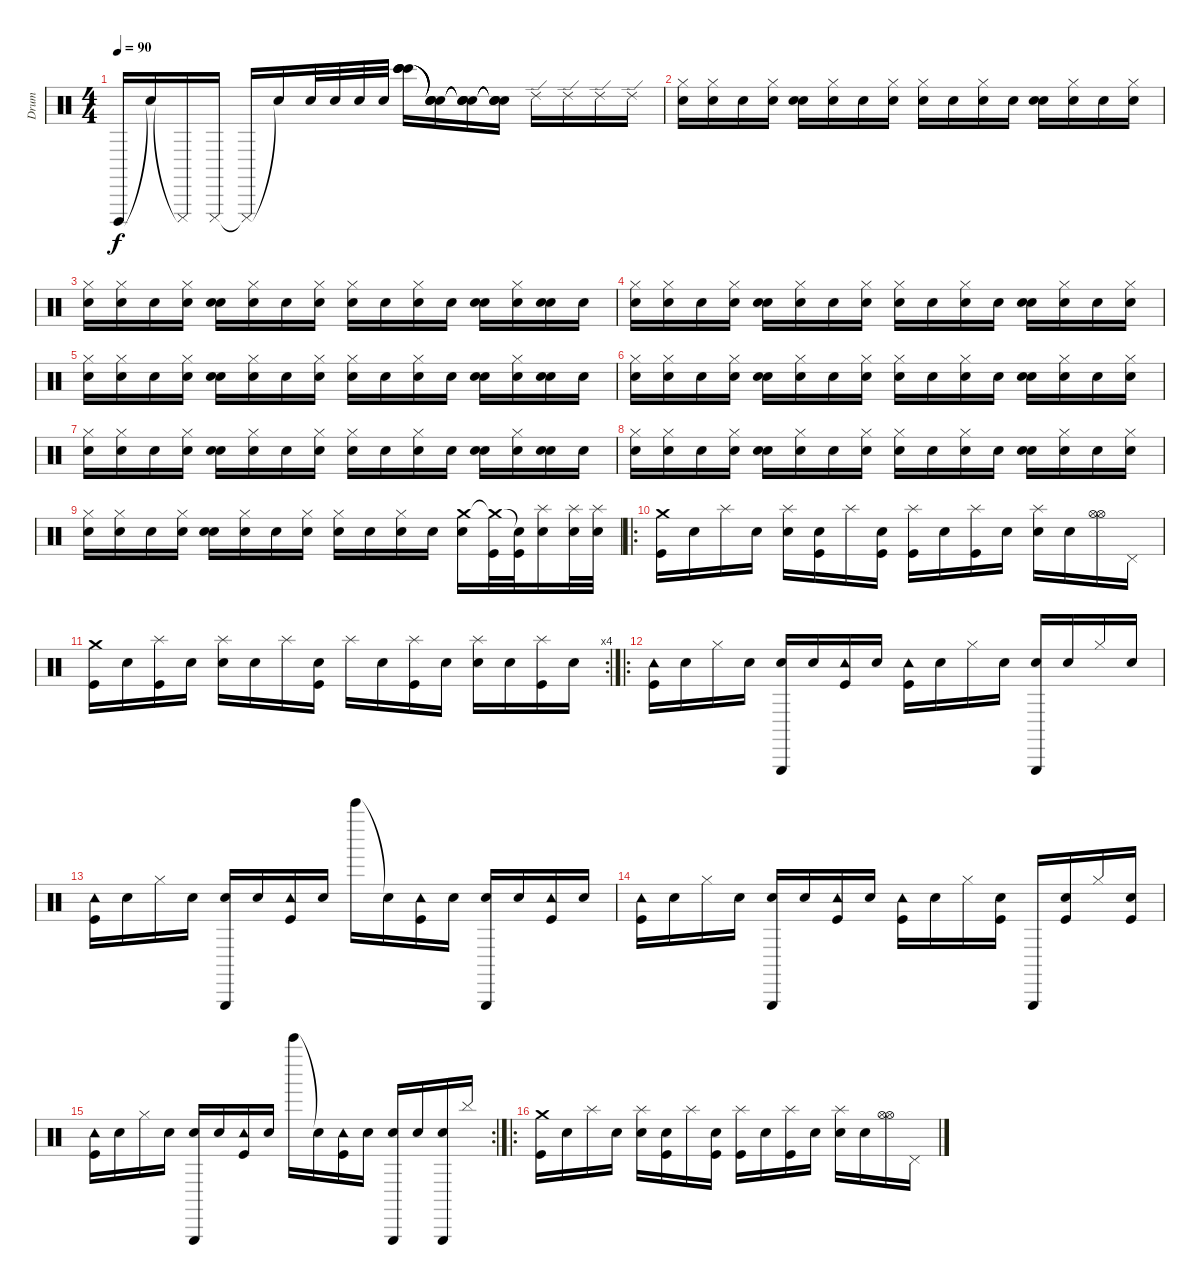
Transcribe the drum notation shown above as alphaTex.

\track ("Drum" "Drum") {instrument percussion}
\staff {score}
\articulation defaults
\ts (4 4)
\tempo 90
\clef neutral
\ks c "Cuica (open)".16{dy f} "Snare (hit)"{t}.16 "Cuica (mute)"{t}.16 "Cuica (mute)".16 "Cuica (mute)"{t}.16 "Snare (hit)"{t}.16 "Snare (hit)".32 "Snare (hit)".32 "Snare (hit)".32 "Snare (hit)".32
("Bongo High (hit)" "Bongo High (hit)" "Bongo High (hit)" "Bongo High (hit)").16 ("Snare (hit)"{t} "Snare (hit)"{t} "Snare (hit)"{t} "Snare (hit)"{t}).16 ("Snare (hit)"{t} "Snare (hit)"{t} "Snare (hit)"{t} "Snare (hit)"{t}).16 ("Snare (hit)"{t} "Snare (hit)"{t} "Snare (hit)"{t} "Snare (hit)"{t}).16 "Ride (edge) 2".16 "Ride (edge) 2".16 "Ride (edge) 2".16 "Ride (edge) 2".16 |
("Snare (hit)" "Hi-Hat (closed)").16 ("Snare (hit)" "Hi-Hat (closed)").16 "Snare (hit)".16 ("Snare (hit)" "Hi-Hat (closed)").16 ("Snare (hit)" "Snare (hit)").16 ("Snare (hit)" "Hi-Hat (closed)").16 "Snare (hit)".16 ("Snare (hit)" "Hi-Hat (closed)").16 ("Snare (hit)" "Hi-Hat (closed)").16 "Snare (hit)".16 ("Snare (hit)" "Hi-Hat (closed)").16 "Snare (hit)".16 ("Snare (hit)" "Snare (hit)").16 ("Snare (hit)" "Hi-Hat (closed)").16 "Snare (hit)".16 ("Snare (hit)" "Hi-Hat (closed)").16 |
("Snare (hit)" "Hi-Hat (closed)").16 ("Snare (hit)" "Hi-Hat (closed)").16 "Snare (hit)".16 ("Snare (hit)" "Hi-Hat (closed)").16 ("Snare (hit)" "Snare (hit)").16 ("Snare (hit)" "Hi-Hat (closed)").16 "Snare (hit)".16 ("Snare (hit)" "Hi-Hat (closed)").16 ("Snare (hit)" "Hi-Hat (closed)").16 "Snare (hit)".16 ("Snare (hit)" "Hi-Hat (closed)").16 "Snare (hit)".16 ("Snare (hit)" "Snare (hit)").16 ("Snare (hit)" "Hi-Hat (closed)").16 ("Snare (hit)" "Snare (hit)").16 "Snare (hit)".16 |
("Snare (hit)" "Hi-Hat (closed)").16 ("Snare (hit)" "Hi-Hat (closed)").16 "Snare (hit)".16 ("Snare (hit)" "Hi-Hat (closed)").16 ("Snare (hit)" "Snare (hit)").16 ("Snare (hit)" "Hi-Hat (closed)").16 "Snare (hit)".16 ("Snare (hit)" "Hi-Hat (closed)").16 ("Snare (hit)" "Hi-Hat (closed)").16 "Snare (hit)".16 ("Snare (hit)" "Hi-Hat (closed)").16 "Snare (hit)".16 ("Snare (hit)" "Snare (hit)").16 ("Snare (hit)" "Hi-Hat (closed)").16 "Snare (hit)".16 ("Snare (hit)" "Hi-Hat (closed)").16 |
("Snare (hit)" "Hi-Hat (closed)").16 ("Snare (hit)" "Hi-Hat (closed)").16 "Snare (hit)".16 ("Snare (hit)" "Hi-Hat (closed)").16 ("Snare (hit)" "Snare (hit)").16 ("Snare (hit)" "Hi-Hat (closed)").16 "Snare (hit)".16 ("Snare (hit)" "Hi-Hat (closed)").16 ("Snare (hit)" "Hi-Hat (closed)").16 "Snare (hit)".16 ("Snare (hit)" "Hi-Hat (closed)").16 "Snare (hit)".16 ("Snare (hit)" "Snare (hit)").16 ("Snare (hit)" "Hi-Hat (closed)").16 ("Snare (hit)" "Snare (hit)").16 "Snare (hit)".16 |
("Snare (hit)" "Hi-Hat (closed)").16 ("Snare (hit)" "Hi-Hat (closed)").16 "Snare (hit)".16 ("Snare (hit)" "Hi-Hat (closed)").16 ("Snare (hit)" "Snare (hit)").16 ("Snare (hit)" "Hi-Hat (closed)").16 "Snare (hit)".16 ("Snare (hit)" "Hi-Hat (closed)").16 ("Snare (hit)" "Hi-Hat (closed)").16 "Snare (hit)".16 ("Snare (hit)" "Hi-Hat (closed)").16 "Snare (hit)".16 ("Snare (hit)" "Snare (hit)").16 ("Snare (hit)" "Hi-Hat (closed)").16 "Snare (hit)".16 ("Snare (hit)" "Hi-Hat (closed)").16 |
("Snare (hit)" "Hi-Hat (closed)").16 ("Snare (hit)" "Hi-Hat (closed)").16 "Snare (hit)".16 ("Snare (hit)" "Hi-Hat (closed)").16 ("Snare (hit)" "Snare (hit)").16 ("Snare (hit)" "Hi-Hat (closed)").16 "Snare (hit)".16 ("Snare (hit)" "Hi-Hat (closed)").16 ("Snare (hit)" "Hi-Hat (closed)").16 "Snare (hit)".16 ("Snare (hit)" "Hi-Hat (closed)").16 "Snare (hit)".16 ("Snare (hit)" "Snare (hit)").16 ("Snare (hit)" "Hi-Hat (closed)").16 ("Snare (hit)" "Snare (hit)").16 "Snare (hit)".16 |
("Snare (hit)" "Hi-Hat (closed)").16 ("Snare (hit)" "Hi-Hat (closed)").16 "Snare (hit)".16 ("Snare (hit)" "Hi-Hat (closed)").16 ("Snare (hit)" "Snare (hit)").16 ("Snare (hit)" "Hi-Hat (closed)").16 "Snare (hit)".16 ("Snare (hit)" "Hi-Hat (closed)").16 ("Snare (hit)" "Hi-Hat (closed)").16 "Snare (hit)".16 ("Snare (hit)" "Hi-Hat (closed)").16 "Snare (hit)".16 ("Snare (hit)" "Snare (hit)").16 ("Snare (hit)" "Hi-Hat (closed)").16 "Snare (hit)".16 ("Snare (hit)" "Hi-Hat (closed)").16 |
("Snare (hit)" "Hi-Hat (closed)").16 ("Snare (hit)" "Hi-Hat (closed)").16 "Snare (hit)".16 ("Snare (hit)" "Hi-Hat (closed)").16 ("Snare (hit)" "Snare (hit)").16 ("Snare (hit)" "Hi-Hat (closed)").16 "Snare (hit)".16 ("Snare (hit)" "Hi-Hat (closed)").16 ("Snare (hit)" "Hi-Hat (closed)").16 "Snare (hit)".16 ("Snare (hit)" "Hi-Hat (closed)").16 "Snare (hit)".16 ("Crash medium (hit)" "Snare (hit) 2").16 ("Crash medium (hit)"{t} "Kick (hit)").32 ("Snare (hit)"{t} "Kick (hit)").32 ("Splash (hit)" "Snare (hit) 2").16 ("Splash (hit)" "Snare (hit) 2").32 ("Splash (hit)" "Snare (hit) 2").32 |
\ro
("Crash medium (hit)" "Kick (hit)").16 "Snare (hit)".16 "Splash (hit)".16 "Snare (hit)".16 ("Splash (hit)" "Snare (hit) 2").16 ("Snare (hit)" "Kick (hit)").16 "Splash (hit)".16 ("Snare (hit)" "Kick (hit)").16 ("Splash (hit)" "Kick (hit)").16 "Snare (hit)".16 ("Splash (hit)" "Kick (hit)").16 "Snare (hit)".16 ("Splash (hit)" "Snare (hit) 2").16 "Snare (hit)".16 ("Hi-Hat (open)" "Hi-Hat (open)").16 "Pedal Hi-Hat (hit)".16 |
\rc 4
("Crash medium (hit)" "Kick (hit)").16 "Snare (hit)".16 ("Splash (hit)" "Kick (hit)").16 "Snare (hit)".16 ("Splash (hit)" "Snare (hit) 2").16 "Snare (hit)".16 "Splash (hit)".16 ("Snare (hit)" "Kick (hit)").16 "Splash (hit)".16 "Snare (hit)".16 ("Splash (hit)" "Kick (hit)").16 "Snare (hit)".16 ("Splash (hit)" "Snare (hit) 2").16 "Snare (hit)".16 ("Splash (hit)" "Kick (hit)").16 "Snare (hit)".16 |
\ro
("Tambourine (hit)" "Kick (hit)").16 "Snare (hit)".16 "Hi-Hat (closed)".16 "Snare (hit)".16 ("Triangle (hit)" "Metronome (bell)").16 "Snare (hit)".16 ("Tambourine (hit)" "Kick (hit)").16 "Snare (hit)".16 ("Tambourine (hit)" "Kick (hit)").16 "Snare (hit)".16 "Hi-Hat (closed)".16 "Snare (hit)".16 ("Triangle (hit)" "Metronome (bell)").16 "Snare (hit)".16 "Hi-Hat (closed)".16 "Snare (hit)".16 |
("Tambourine (hit)" "Kick (hit)").16 "Snare (hit)".16 "Hi-Hat (closed)".16 "Snare (hit)".16 ("Triangle (hit)" "Metronome (bell)").16 "Snare (hit)".16 ("Tambourine (hit)" "Kick (hit)").16 "Snare (hit)".16 "Bell Tree (hit)".16 "Snare (hit)"{t}.16 ("Tambourine (hit)" "Kick (hit)").16 "Snare (hit)".16 ("Triangle (hit)" "Metronome (bell)").16 "Snare (hit)".16 ("Tambourine (hit)" "Kick (hit)").16 "Snare (hit)".16 |
("Tambourine (hit)" "Kick (hit)").16 "Snare (hit)".16 "Hi-Hat (closed)".16 "Snare (hit)".16 ("Triangle (hit)" "Metronome (bell)").16 "Snare (hit)".16 ("Tambourine (hit)" "Kick (hit)").16 "Snare (hit)".16 ("Tambourine (hit)" "Kick (hit)").16 "Snare (hit)".16 "Hi-Hat (closed)".16 ("Snare (hit)" "Kick (hit)").16 "Triangle (hit)".16 ("Snare (hit)" "Kick (hit)").16 "Hi-Hat (closed)".16 ("Snare (hit)" "Kick (hit)").16 |
\rc 2
("Tambourine (hit)" "Kick (hit)").16 "Snare (hit)".16 "Hi-Hat (closed)".16 "Snare (hit)".16 ("Triangle (hit)" "Metronome (bell)").16 "Snare (hit)".16 ("Tambourine (hit)" "Kick (hit)").16 "Snare (hit)".16 "Bell Tree (hit)".16 "Snare (hit)"{t}.16 ("Tambourine (hit)" "Kick (hit)").16 "Snare (hit)".16 ("Triangle (hit)" "Metronome (bell)").16 "Snare (hit)".16 ("Triangle (hit)" "Metronome (bell)").16 "Cymbal (hit)".16 |
\ro
("Crash medium (hit)" "Kick (hit)").16 "Snare (hit)".16 "Splash (hit)".16 "Snare (hit)".16 ("Splash (hit)" "Snare (hit) 2").16 ("Snare (hit)" "Kick (hit)").16 "Splash (hit)".16 ("Snare (hit)" "Kick (hit)").16 ("Splash (hit)" "Kick (hit)").16 "Snare (hit)".16 ("Splash (hit)" "Kick (hit)").16 "Snare (hit)".16 ("Splash (hit)" "Snare (hit) 2").16 "Snare (hit)".16 ("Hi-Hat (open)" "Hi-Hat (open)").16 "Pedal Hi-Hat (hit)".16
